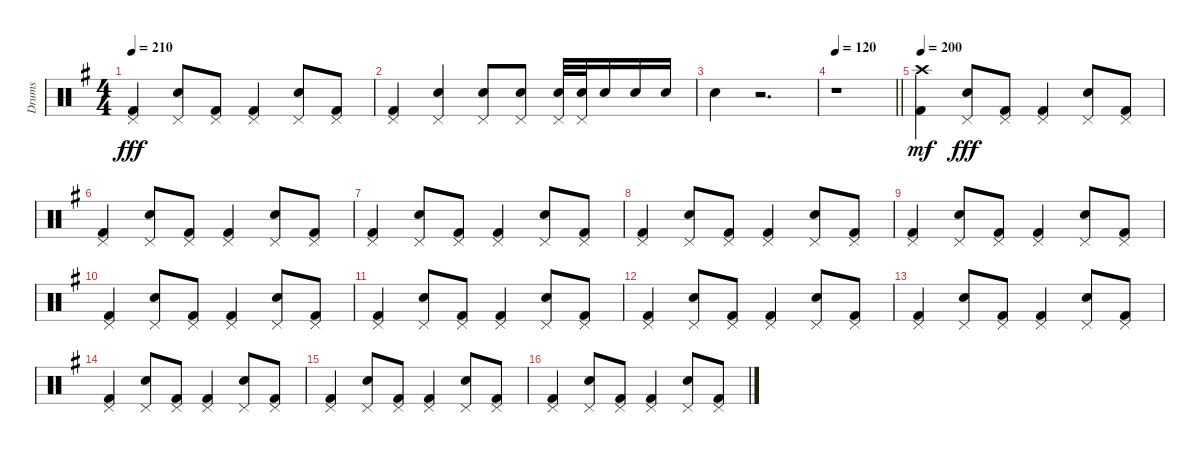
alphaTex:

\track ("Drums" "Drums") {instrument percussion}
\staff {score}
\articulation defaults
\ts (4 4)
\tempo 210
\clef neutral
\ks g
("Kick (hit) 2" "Pedal Hi-Hat (hit)").4{dy fff} ("Electric Snare (hit)" "Pedal Hi-Hat (hit)").8 ("Kick (hit) 2" "Pedal Hi-Hat (hit)").8 ("Kick (hit) 2" "Pedal Hi-Hat (hit)").4 ("Electric Snare (hit)" "Pedal Hi-Hat (hit)").8 ("Kick (hit) 2" "Pedal Hi-Hat (hit)").8 |
("Kick (hit) 2" "Pedal Hi-Hat (hit)").4 ("Electric Snare (hit)" "Pedal Hi-Hat (hit)").4 ("Electric Snare (hit)" "Pedal Hi-Hat (hit)").8 ("Electric Snare (hit)" "Pedal Hi-Hat (hit)").8 ("Electric Snare (hit)" "Pedal Hi-Hat (hit)").32 ("Electric Snare (hit)" "Pedal Hi-Hat (hit)").32 "Electric Snare (hit)".16 "Electric Snare (hit)".16 "Electric Snare (hit)".16 |
"Electric Snare (hit)".4 r.2{d} |
\tempo 120
\barLineRight lightlight
r.1 |
\tempo 200
("Kick (hit) 2" "Crash high (hit)").4{dy mf} ("Electric Snare (hit)" "Pedal Hi-Hat (hit)").8{dy fff} ("Kick (hit) 2" "Pedal Hi-Hat (hit)").8 ("Kick (hit) 2" "Pedal Hi-Hat (hit)").4 ("Electric Snare (hit)" "Pedal Hi-Hat (hit)").8 ("Kick (hit) 2" "Pedal Hi-Hat (hit)").8 |
("Kick (hit) 2" "Pedal Hi-Hat (hit)").4 ("Electric Snare (hit)" "Pedal Hi-Hat (hit)").8 ("Kick (hit) 2" "Pedal Hi-Hat (hit)").8 ("Kick (hit) 2" "Pedal Hi-Hat (hit)").4 ("Electric Snare (hit)" "Pedal Hi-Hat (hit)").8 ("Kick (hit) 2" "Pedal Hi-Hat (hit)").8 |
("Kick (hit) 2" "Pedal Hi-Hat (hit)").4 ("Electric Snare (hit)" "Pedal Hi-Hat (hit)").8 ("Kick (hit) 2" "Pedal Hi-Hat (hit)").8 ("Kick (hit) 2" "Pedal Hi-Hat (hit)").4 ("Electric Snare (hit)" "Pedal Hi-Hat (hit)").8 ("Kick (hit) 2" "Pedal Hi-Hat (hit)").8 |
("Kick (hit) 2" "Pedal Hi-Hat (hit)").4 ("Electric Snare (hit)" "Pedal Hi-Hat (hit)").8 ("Kick (hit) 2" "Pedal Hi-Hat (hit)").8 ("Kick (hit) 2" "Pedal Hi-Hat (hit)").4 ("Electric Snare (hit)" "Pedal Hi-Hat (hit)").8 ("Kick (hit) 2" "Pedal Hi-Hat (hit)").8 |
("Kick (hit) 2" "Pedal Hi-Hat (hit)").4 ("Electric Snare (hit)" "Pedal Hi-Hat (hit)").8 ("Kick (hit) 2" "Pedal Hi-Hat (hit)").8 ("Kick (hit) 2" "Pedal Hi-Hat (hit)").4 ("Electric Snare (hit)" "Pedal Hi-Hat (hit)").8 ("Kick (hit) 2" "Pedal Hi-Hat (hit)").8 |
("Kick (hit) 2" "Pedal Hi-Hat (hit)").4 ("Electric Snare (hit)" "Pedal Hi-Hat (hit)").8 ("Kick (hit) 2" "Pedal Hi-Hat (hit)").8 ("Kick (hit) 2" "Pedal Hi-Hat (hit)").4 ("Electric Snare (hit)" "Pedal Hi-Hat (hit)").8 ("Kick (hit) 2" "Pedal Hi-Hat (hit)").8 |
("Kick (hit) 2" "Pedal Hi-Hat (hit)").4 ("Electric Snare (hit)" "Pedal Hi-Hat (hit)").8 ("Kick (hit) 2" "Pedal Hi-Hat (hit)").8 ("Kick (hit) 2" "Pedal Hi-Hat (hit)").4 ("Electric Snare (hit)" "Pedal Hi-Hat (hit)").8 ("Kick (hit) 2" "Pedal Hi-Hat (hit)").8 |
("Kick (hit) 2" "Pedal Hi-Hat (hit)").4 ("Electric Snare (hit)" "Pedal Hi-Hat (hit)").8 ("Kick (hit) 2" "Pedal Hi-Hat (hit)").8 ("Kick (hit) 2" "Pedal Hi-Hat (hit)").4 ("Electric Snare (hit)" "Pedal Hi-Hat (hit)").8 ("Kick (hit) 2" "Pedal Hi-Hat (hit)").8 |
("Kick (hit) 2" "Pedal Hi-Hat (hit)").4 ("Electric Snare (hit)" "Pedal Hi-Hat (hit)").8 ("Kick (hit) 2" "Pedal Hi-Hat (hit)").8 ("Kick (hit) 2" "Pedal Hi-Hat (hit)").4 ("Electric Snare (hit)" "Pedal Hi-Hat (hit)").8 ("Kick (hit) 2" "Pedal Hi-Hat (hit)").8 |
("Kick (hit) 2" "Pedal Hi-Hat (hit)").4 ("Electric Snare (hit)" "Pedal Hi-Hat (hit)").8 ("Kick (hit) 2" "Pedal Hi-Hat (hit)").8 ("Kick (hit) 2" "Pedal Hi-Hat (hit)").4 ("Electric Snare (hit)" "Pedal Hi-Hat (hit)").8 ("Kick (hit) 2" "Pedal Hi-Hat (hit)").8 |
("Kick (hit) 2" "Pedal Hi-Hat (hit)").4 ("Electric Snare (hit)" "Pedal Hi-Hat (hit)").8 ("Kick (hit) 2" "Pedal Hi-Hat (hit)").8 ("Kick (hit) 2" "Pedal Hi-Hat (hit)").4 ("Electric Snare (hit)" "Pedal Hi-Hat (hit)").8 ("Kick (hit) 2" "Pedal Hi-Hat (hit)").8 |
("Kick (hit) 2" "Pedal Hi-Hat (hit)").4 ("Electric Snare (hit)" "Pedal Hi-Hat (hit)").8 ("Kick (hit) 2" "Pedal Hi-Hat (hit)").8 ("Kick (hit) 2" "Pedal Hi-Hat (hit)").4 ("Electric Snare (hit)" "Pedal Hi-Hat (hit)").8 ("Kick (hit) 2" "Pedal Hi-Hat (hit)").8
